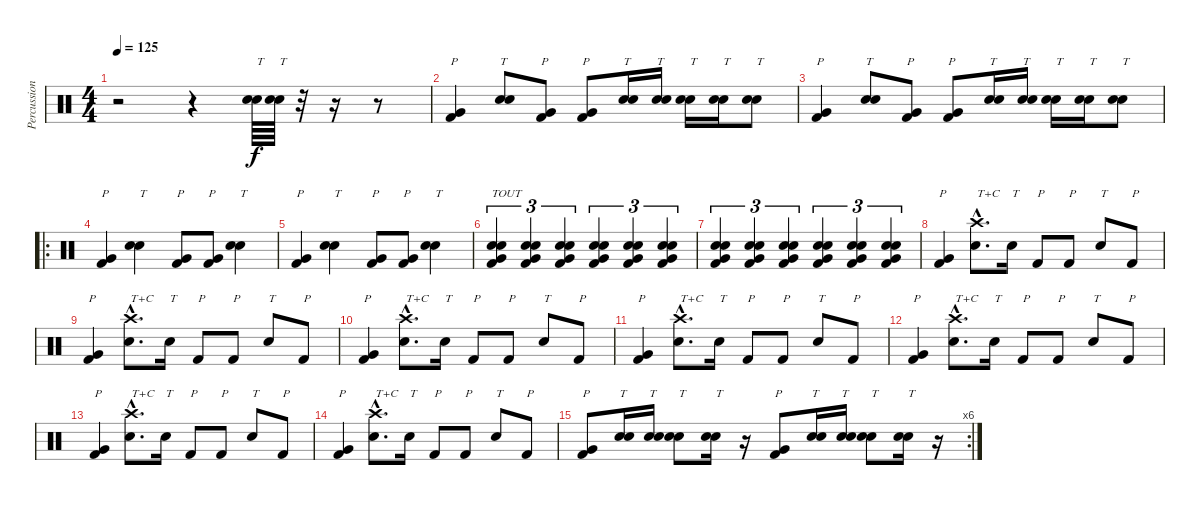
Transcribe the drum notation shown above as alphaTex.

\track ("Percussions" "Percussion") {instrument percussion}
\staff {score}
\articulation defaults
\ts (4 4)
\tempo 125
\clef neutral
\ks c
r.2{dy f} r.4 ("Snare (hit) 2" "Electric Snare (hit)").64{txt "T"} ("Snare (hit) 2" "Electric Snare (hit)").64{txt "T"} r.32 r.16 r.8 |
("Kick (hit) 2" "Very Low Tom (hit)").4{txt "P"} ("Snare (hit) 2" "Electric Snare (hit)").8{txt "T"} ("Kick (hit) 2" "Very Low Tom (hit)").8{txt "P"} ("Kick (hit) 2" "Very Low Tom (hit)").8{txt "P"} ("Snare (hit) 2" "Electric Snare (hit)").16{txt "T"} ("Snare (hit) 2" "Electric Snare (hit)").16{txt "T"} ("Snare (hit) 2" "Electric Snare (hit)").16{txt "T"} ("Snare (hit) 2" "Electric Snare (hit)").16{txt "T"} ("Snare (hit) 2" "Electric Snare (hit)").8{txt "T"} |
("Kick (hit) 2" "Very Low Tom (hit)").4{txt "P"} ("Snare (hit) 2" "Electric Snare (hit)").8{txt "T"} ("Kick (hit) 2" "Very Low Tom (hit)").8{txt "P"} ("Kick (hit) 2" "Very Low Tom (hit)").8{txt "P"} ("Snare (hit) 2" "Electric Snare (hit)").16{txt "T"} ("Snare (hit) 2" "Electric Snare (hit)").16{txt "T"} ("Snare (hit) 2" "Electric Snare (hit)").16{txt "T"} ("Snare (hit) 2" "Electric Snare (hit)").16{txt "T"} ("Snare (hit) 2" "Electric Snare (hit)").8{txt "T"} |
\ro
("Kick (hit) 2" "Very Low Tom (hit)").4{txt "P"} ("Snare (hit) 2" "Electric Snare (hit)").4{txt "T"} ("Kick (hit) 2" "Very Low Tom (hit)").8{txt "P"} ("Kick (hit) 2" "Very Low Tom (hit)").8{txt "P"} ("Snare (hit) 2" "Electric Snare (hit)").4{txt "T"} |
("Kick (hit) 2" "Very Low Tom (hit)").4{txt "P"} ("Snare (hit) 2" "Electric Snare (hit)").4{txt "T"} ("Kick (hit) 2" "Very Low Tom (hit)").8{txt "P"} ("Kick (hit) 2" "Very Low Tom (hit)").8{txt "P"} ("Snare (hit) 2" "Electric Snare (hit)").4{txt "T"} |
("Very Low Tom (hit)" "Electric Snare (hit)" "Snare (hit) 2" "Kick (hit) 2").4{tu (3 2) txt "TOUT"} ("Very Low Tom (hit)" "Electric Snare (hit)" "Snare (hit) 2" "Kick (hit) 2").4{tu (3 2)} ("Very Low Tom (hit)" "Electric Snare (hit)" "Snare (hit) 2" "Kick (hit) 2").4{tu (3 2)} ("Very Low Tom (hit)" "Electric Snare (hit)" "Snare (hit) 2" "Kick (hit) 2").4{tu (3 2)} ("Very Low Tom (hit)" "Electric Snare (hit)" "Snare (hit) 2" "Kick (hit) 2").4{tu (3 2)} ("Very Low Tom (hit)" "Electric Snare (hit)" "Snare (hit) 2" "Kick (hit) 2").4{tu (3 2)} |
("Very Low Tom (hit)" "Electric Snare (hit)" "Snare (hit) 2" "Kick (hit) 2").4{tu (3 2)} ("Very Low Tom (hit)" "Electric Snare (hit)" "Snare (hit) 2" "Kick (hit) 2").4{tu (3 2)} ("Very Low Tom (hit)" "Electric Snare (hit)" "Snare (hit) 2" "Kick (hit) 2").4{tu (3 2)} ("Very Low Tom (hit)" "Electric Snare (hit)" "Snare (hit) 2" "Kick (hit) 2").4{tu (3 2)} ("Very Low Tom (hit)" "Electric Snare (hit)" "Snare (hit) 2" "Kick (hit) 2").4{tu (3 2)} ("Very Low Tom (hit)" "Electric Snare (hit)" "Snare (hit) 2" "Kick (hit) 2").4{tu (3 2)} |
("Kick (hit) 2" "Very Low Tom (hit)").4{txt "P"} ("Crash high (hit)"{hac} "Snare (hit) 2"{hac}).8{d txt "T+C"} "Snare (hit) 2".16{txt "T"} "Kick (hit) 2".8{txt "P"} "Kick (hit) 2".8{txt "P"} "Snare (hit) 2".8{txt "T"} "Kick (hit) 2".8{txt "P"} |
("Kick (hit) 2" "Very Low Tom (hit)").4{txt "P"} ("Crash high (hit)"{hac} "Snare (hit) 2"{hac}).8{d txt "T+C"} "Snare (hit) 2".16{txt "T"} "Kick (hit) 2".8{txt "P"} "Kick (hit) 2".8{txt "P"} "Snare (hit) 2".8{txt "T"} "Kick (hit) 2".8{txt "P"} |
("Kick (hit) 2" "Very Low Tom (hit)").4{txt "P"} ("Crash high (hit)"{hac} "Snare (hit) 2"{hac}).8{d txt "T+C"} "Snare (hit) 2".16{txt "T"} "Kick (hit) 2".8{txt "P"} "Kick (hit) 2".8{txt "P"} "Snare (hit) 2".8{txt "T"} "Kick (hit) 2".8{txt "P"} |
("Kick (hit) 2" "Very Low Tom (hit)").4{txt "P"} ("Crash high (hit)"{hac} "Snare (hit) 2"{hac}).8{d txt "T+C"} "Snare (hit) 2".16{txt "T"} "Kick (hit) 2".8{txt "P"} "Kick (hit) 2".8{txt "P"} "Snare (hit) 2".8{txt "T"} "Kick (hit) 2".8{txt "P"} |
("Kick (hit) 2" "Very Low Tom (hit)").4{txt "P"} ("Crash high (hit)"{hac} "Snare (hit) 2"{hac}).8{d txt "T+C"} "Snare (hit) 2".16{txt "T"} "Kick (hit) 2".8{txt "P"} "Kick (hit) 2".8{txt "P"} "Snare (hit) 2".8{txt "T"} "Kick (hit) 2".8{txt "P"} |
("Kick (hit) 2" "Very Low Tom (hit)").4{txt "P"} ("Crash high (hit)"{hac} "Snare (hit) 2"{hac}).8{d txt "T+C"} "Snare (hit) 2".16{txt "T"} "Kick (hit) 2".8{txt "P"} "Kick (hit) 2".8{txt "P"} "Snare (hit) 2".8{txt "T"} "Kick (hit) 2".8{txt "P"} |
("Kick (hit) 2" "Very Low Tom (hit)").4{txt "P"} ("Crash high (hit)"{hac} "Snare (hit) 2"{hac}).8{d txt "T+C"} "Snare (hit) 2".16{txt "T"} "Kick (hit) 2".8{txt "P"} "Kick (hit) 2".8{txt "P"} "Snare (hit) 2".8{txt "T"} "Kick (hit) 2".8{txt "P"} |
\rc 6
("Kick (hit) 2" "Very Low Tom (hit)").8{txt "P"} ("Snare (hit) 2" "Electric Snare (hit)").16{txt "T"} ("Snare (hit) 2" "Electric Snare (hit)").16{txt "T"} ("Snare (hit) 2" "Electric Snare (hit)").8{txt "T"} ("Snare (hit) 2" "Electric Snare (hit)").16{txt "T"} r.16 ("Kick (hit) 2" "Very Low Tom (hit)").8{txt "P"} ("Snare (hit) 2" "Electric Snare (hit)").16{txt "T"} ("Snare (hit) 2" "Electric Snare (hit)").16{txt "T"} ("Snare (hit) 2" "Electric Snare (hit)").8{txt "T"} ("Snare (hit) 2" "Electric Snare (hit)").16{txt "T"} r.16
